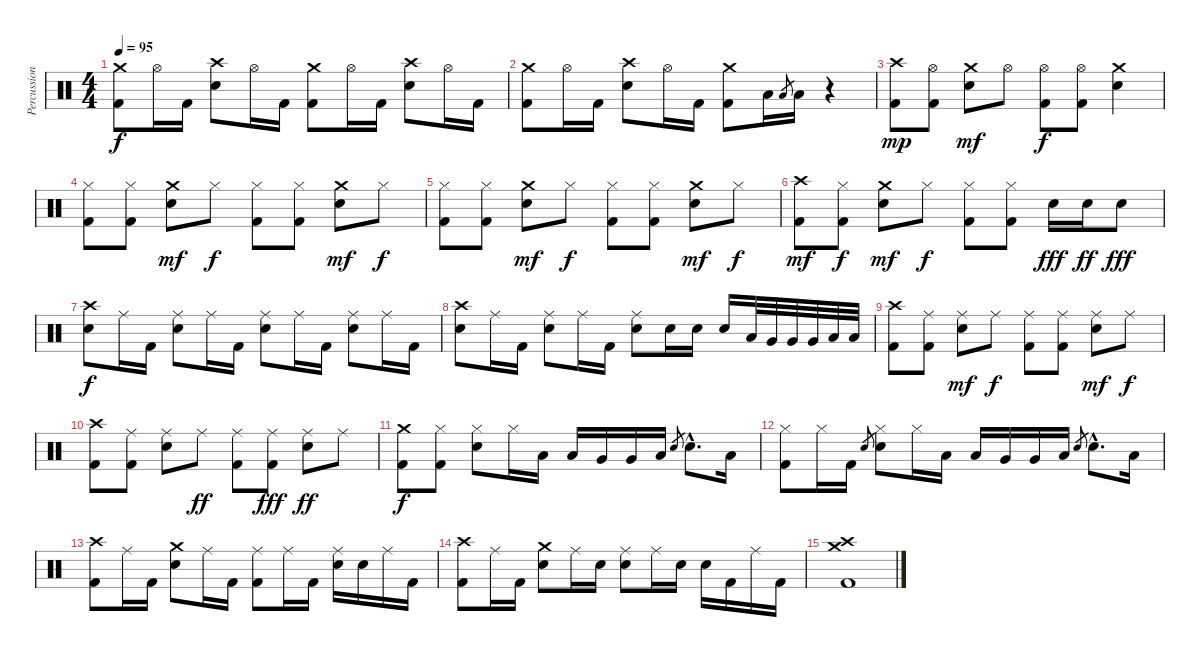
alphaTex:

\track ("Percussions" "Percussion") {instrument percussion}
\staff {score}
\articulation defaults
\ts (4 4)
\tempo 95
\clef neutral
\ks c
("Crash medium (hit)" "Kick (hit) 2").8{dy f} "Hi-Hat (open)".16 "Kick (hit) 2".16 ("Crash high (hit)" "Electric Snare (hit)").8 "Hi-Hat (open)".16 "Kick (hit) 2".16 ("Crash medium (hit)" "Kick (hit) 2").8 "Hi-Hat (open)".16 "Kick (hit) 2".16 ("Crash high (hit)" "Electric Snare (hit)").8 "Hi-Hat (open)".16 "Kick (hit) 2".16 |
("Crash medium (hit)" "Kick (hit) 2").8 "Hi-Hat (open)".16 "Kick (hit) 2".16 ("Crash high (hit)" "Electric Snare (hit)").8 "Hi-Hat (open)".16 "Kick (hit) 2".16 ("Crash medium (hit)" "Kick (hit) 2").8 "Low Floor Tom (hit)".16 "Low Floor Tom (hit)".8{gr} "Low Floor Tom (hit)".16 r.4 |
("Crash high (hit)" "Kick (hit) 2").8{dy mp} ("Hi-Hat (open)" "Kick (hit) 2").8 ("Crash medium (hit)" "Electric Snare (hit)").8{dy mf} "Hi-Hat (open)".8 ("Hi-Hat (open)" "Kick (hit) 2").8{dy f} ("Hi-Hat (open)" "Kick (hit) 2").8 ("Crash medium (hit)" "Electric Snare (hit)").4 |
("Hi-Hat (closed)" "Kick (hit) 2").8 ("Hi-Hat (closed)" "Kick (hit) 2").8 ("Crash medium (hit)" "Electric Snare (hit)").8{dy mf} "Hi-Hat (closed)".8{dy f} ("Hi-Hat (closed)" "Kick (hit) 2").8 ("Hi-Hat (closed)" "Kick (hit) 2").8 ("Crash medium (hit)" "Electric Snare (hit)").8{dy mf} "Hi-Hat (closed)".8{dy f} |
("Hi-Hat (closed)" "Kick (hit) 2").8 ("Hi-Hat (closed)" "Kick (hit) 2").8 ("Crash medium (hit)" "Electric Snare (hit)").8{dy mf} "Hi-Hat (closed)".8{dy f} ("Hi-Hat (closed)" "Kick (hit) 2").8 ("Hi-Hat (closed)" "Kick (hit) 2").8 ("Crash medium (hit)" "Electric Snare (hit)").8{dy mf} "Hi-Hat (closed)".8{dy f} |
("Crash high (hit)" "Kick (hit) 2").8{dy mf} ("Hi-Hat (closed)" "Kick (hit) 2").8{dy f} ("Crash medium (hit)" "Electric Snare (hit)").8{dy mf} "Hi-Hat (closed)".8{dy f} ("Hi-Hat (closed)" "Kick (hit) 2").8 ("Hi-Hat (closed)" "Kick (hit) 2").8 "Electric Snare (hit)".16{dy fff} "Electric Snare (hit)".16{dy ff} "Electric Snare (hit)".8{dy fff} |
("Crash high (hit)" "Electric Snare (hit)").8{dy f} "Ride (middle)".16 "Kick (hit) 2".16 ("Ride (middle)" "Electric Snare (hit)").8 "Ride (middle)".16 "Kick (hit) 2".16 ("Ride (middle)" "Electric Snare (hit)").8 "Ride (middle)".16 "Kick (hit) 2".16 ("Ride (middle)" "Electric Snare (hit)").8 "Ride (middle)".16 "Kick (hit) 2".16 |
("Crash high (hit)" "Electric Snare (hit)").8 "Ride (middle)".16 "Kick (hit) 2".16 ("Ride (middle)" "Electric Snare (hit)").8 "Ride (middle)".16 "Kick (hit) 2".16 ("Ride (middle)" "Electric Snare (hit)").8 "Electric Snare (hit)".16 "Electric Snare (hit)".16 "Electric Snare (hit)".16 "Low Tom (hit)".32 "Very Low Tom (hit)".32 "Very Low Tom (hit)".32 "Very Low Tom (hit)".32 "Low Floor Tom (hit)".32 "Low Floor Tom (hit)".32 |
("Crash high (hit)" "Kick (hit) 2").8 ("Ride (middle)" "Kick (hit) 2").8 ("Ride (middle)" "Electric Snare (hit)").8{dy mf} "Ride (middle)".8{dy f} ("Ride (middle)" "Kick (hit) 2").8 ("Ride (middle)" "Kick (hit) 2").8 ("Ride (middle)" "Electric Snare (hit)").8{dy mf} "Ride (middle)".8{dy f} |
("Crash high (hit)" "Kick (hit) 2").8 ("Ride (middle)" "Kick (hit) 2").8 ("Ride (middle)" "Electric Snare (hit)").8 "Ride (middle)".8{dy ff} ("Ride (middle)" "Kick (hit) 2").8 ("Ride (middle)" "Kick (hit) 2").8{dy fff} ("Ride (middle)" "Electric Snare (hit)").8{dy ff} "Ride (middle)".8 |
("Crash medium (hit)" "Kick (hit) 2").8{dy f} ("Hi-Hat (closed)" "Kick (hit) 2").8 ("Hi-Hat (closed)" "Electric Snare (hit)").8 "Hi-Hat (closed)".16 "Low Tom (hit)".16 "Low Tom (hit)".16 "Very Low Tom (hit)".16 "Very Low Tom (hit)".16 "Low Floor Tom (hit)".16 "Electric Snare (hit)".8{gr} "Electric Snare (hit)"{hac}.8{d} "Low Tom (hit)".16 |
("Hi-Hat (closed)" "Kick (hit) 2").8 "Hi-Hat (closed)".16 "Kick (hit) 2".16 "Electric Snare (hit)".8{gr} ("Hi-Hat (closed)" "Electric Snare (hit)").8 "Hi-Hat (closed)".16 "Low Tom (hit)".16 "Low Tom (hit)".16 "Very Low Tom (hit)".16 "Very Low Tom (hit)".16 "Low Floor Tom (hit)".16 "Electric Snare (hit)".8{gr} "Electric Snare (hit)"{hac}.8{d} "Low Tom (hit)".16 |
("Crash high (hit)" "Kick (hit) 2").8 "Ride (middle)".16 "Kick (hit) 2".16 ("Crash medium (hit)" "Electric Snare (hit)").8 "Ride (middle)".16 "Kick (hit) 2".16 ("Ride (middle)" "Kick (hit) 2").8 "Ride (middle)".16 "Kick (hit) 2".16 ("Ride (middle)" "Electric Snare (hit)").16 "Electric Snare (hit)".16 "Ride (middle)".16 "Kick (hit) 2".16 |
("Crash high (hit)" "Kick (hit) 2").8 "Ride (middle)".16 "Kick (hit) 2".16 ("Crash medium (hit)" "Electric Snare (hit)").8 "Ride (middle)".16 "Electric Snare (hit)".16 ("Ride (middle)" "Electric Snare (hit)").8 "Ride (middle)".16 "Electric Snare (hit)".16 "Electric Snare (hit)".16 "Kick (hit) 2".16 "Ride (middle)".16 "Kick (hit) 2".16 |
("Crash medium (hit)" "Crash high (hit)" "Kick (hit) 2").1
